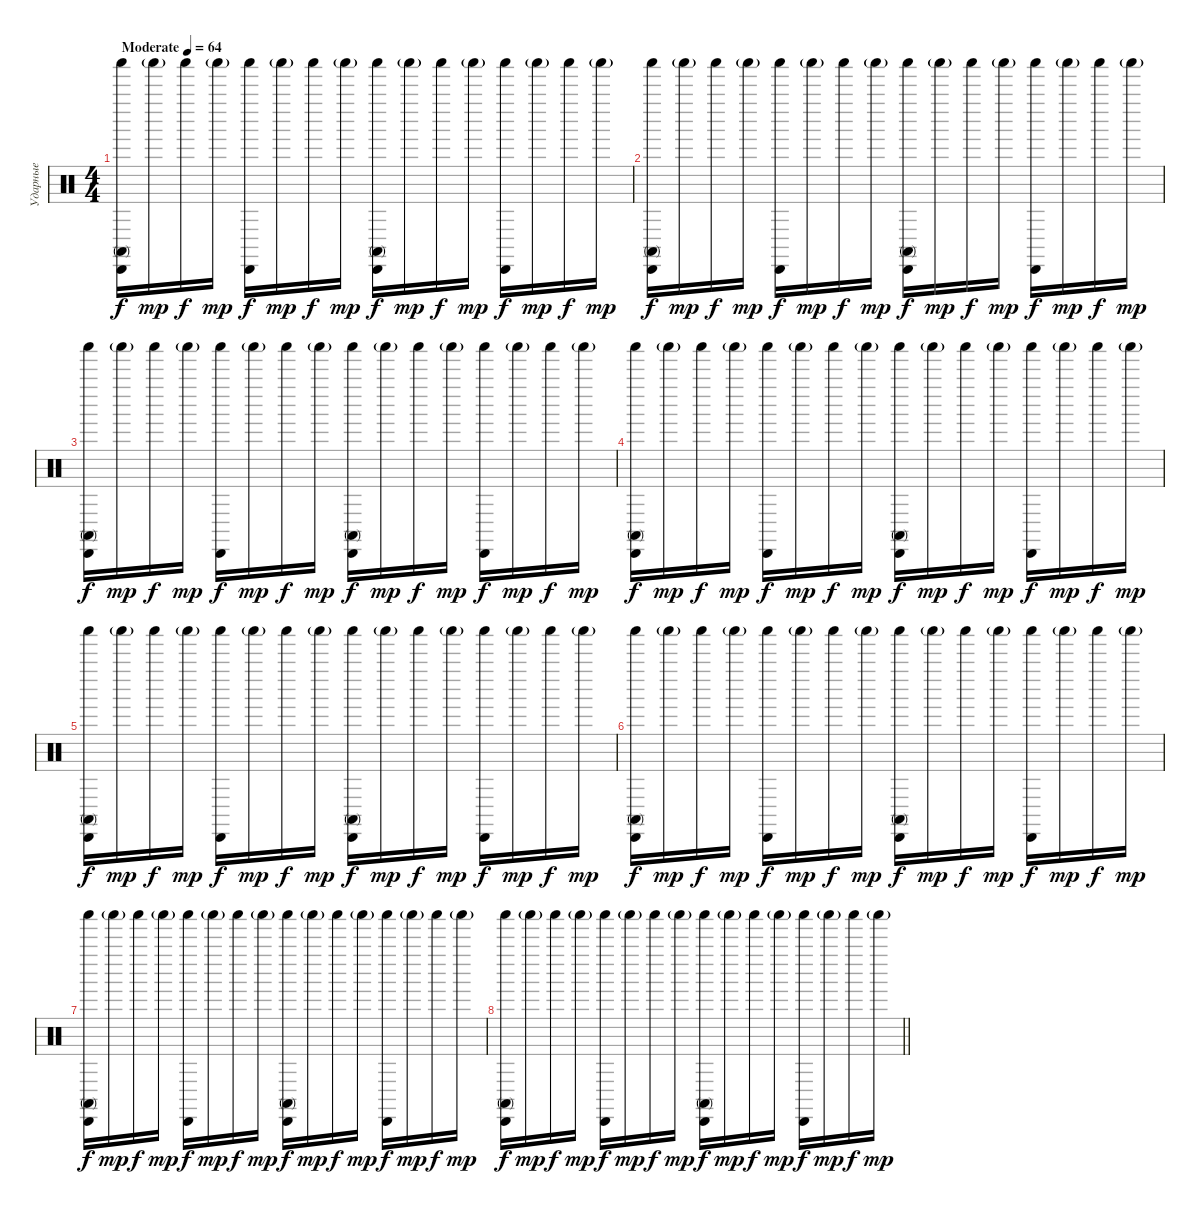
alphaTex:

\track ("Ударные" "Ударные") {instrument percussion}
\staff {score}
\articulation defaults
\ts (4 4)
\tempo (64 "Moderate")
\clef neutral
\ks c
("Conga high (mute)" "Cabasa (hit)" "Shaker (hit)").16{dy f} "Shaker (hit)"{g}.16{dy mp} "Shaker (hit)".16{dy f} "Shaker (hit)"{g}.16{dy mp} ("Cabasa (hit)" "Shaker (hit)").16{dy f} "Shaker (hit)"{g}.16{dy mp} "Shaker (hit)".16{dy f} "Shaker (hit)"{g}.16{dy mp} ("Conga high (mute)" "Cabasa (hit)" "Shaker (hit)").16{dy f} "Shaker (hit)"{g}.16{dy mp} "Shaker (hit)".16{dy f} "Shaker (hit)"{g}.16{dy mp} ("Cabasa (hit)" "Shaker (hit)").16{dy f} "Shaker (hit)"{g}.16{dy mp} "Shaker (hit)".16{dy f} "Shaker (hit)"{g}.16{dy mp} |
("Conga high (mute)" "Cabasa (hit)" "Shaker (hit)").16{dy f} "Shaker (hit)"{g}.16{dy mp} "Shaker (hit)".16{dy f} "Shaker (hit)"{g}.16{dy mp} ("Cabasa (hit)" "Shaker (hit)").16{dy f} "Shaker (hit)"{g}.16{dy mp} "Shaker (hit)".16{dy f} "Shaker (hit)"{g}.16{dy mp} ("Conga high (mute)" "Cabasa (hit)" "Shaker (hit)").16{dy f} "Shaker (hit)"{g}.16{dy mp} "Shaker (hit)".16{dy f} "Shaker (hit)"{g}.16{dy mp} ("Cabasa (hit)" "Shaker (hit)").16{dy f} "Shaker (hit)"{g}.16{dy mp} "Shaker (hit)".16{dy f} "Shaker (hit)"{g}.16{dy mp} |
("Conga high (mute)" "Cabasa (hit)" "Shaker (hit)").16{dy f} "Shaker (hit)"{g}.16{dy mp} "Shaker (hit)".16{dy f} "Shaker (hit)"{g}.16{dy mp} ("Cabasa (hit)" "Shaker (hit)").16{dy f} "Shaker (hit)"{g}.16{dy mp} "Shaker (hit)".16{dy f} "Shaker (hit)"{g}.16{dy mp} ("Conga high (mute)" "Cabasa (hit)" "Shaker (hit)").16{dy f} "Shaker (hit)"{g}.16{dy mp} "Shaker (hit)".16{dy f} "Shaker (hit)"{g}.16{dy mp} ("Cabasa (hit)" "Shaker (hit)").16{dy f} "Shaker (hit)"{g}.16{dy mp} "Shaker (hit)".16{dy f} "Shaker (hit)"{g}.16{dy mp} |
("Conga high (mute)" "Cabasa (hit)" "Shaker (hit)").16{dy f} "Shaker (hit)"{g}.16{dy mp} "Shaker (hit)".16{dy f} "Shaker (hit)"{g}.16{dy mp} ("Cabasa (hit)" "Shaker (hit)").16{dy f} "Shaker (hit)"{g}.16{dy mp} "Shaker (hit)".16{dy f} "Shaker (hit)"{g}.16{dy mp} ("Conga high (mute)" "Cabasa (hit)" "Shaker (hit)").16{dy f} "Shaker (hit)"{g}.16{dy mp} "Shaker (hit)".16{dy f} "Shaker (hit)"{g}.16{dy mp} ("Cabasa (hit)" "Shaker (hit)").16{dy f} "Shaker (hit)"{g}.16{dy mp} "Shaker (hit)".16{dy f} "Shaker (hit)"{g}.16{dy mp} |
("Conga high (mute)" "Cabasa (hit)" "Shaker (hit)").16{dy f} "Shaker (hit)"{g}.16{dy mp} "Shaker (hit)".16{dy f} "Shaker (hit)"{g}.16{dy mp} ("Cabasa (hit)" "Shaker (hit)").16{dy f} "Shaker (hit)"{g}.16{dy mp} "Shaker (hit)".16{dy f} "Shaker (hit)"{g}.16{dy mp} ("Conga high (mute)" "Cabasa (hit)" "Shaker (hit)").16{dy f} "Shaker (hit)"{g}.16{dy mp} "Shaker (hit)".16{dy f} "Shaker (hit)"{g}.16{dy mp} ("Cabasa (hit)" "Shaker (hit)").16{dy f} "Shaker (hit)"{g}.16{dy mp} "Shaker (hit)".16{dy f} "Shaker (hit)"{g}.16{dy mp} |
("Conga high (mute)" "Cabasa (hit)" "Shaker (hit)").16{dy f} "Shaker (hit)"{g}.16{dy mp} "Shaker (hit)".16{dy f} "Shaker (hit)"{g}.16{dy mp} ("Cabasa (hit)" "Shaker (hit)").16{dy f} "Shaker (hit)"{g}.16{dy mp} "Shaker (hit)".16{dy f} "Shaker (hit)"{g}.16{dy mp} ("Conga high (mute)" "Cabasa (hit)" "Shaker (hit)").16{dy f} "Shaker (hit)"{g}.16{dy mp} "Shaker (hit)".16{dy f} "Shaker (hit)"{g}.16{dy mp} ("Cabasa (hit)" "Shaker (hit)").16{dy f} "Shaker (hit)"{g}.16{dy mp} "Shaker (hit)".16{dy f} "Shaker (hit)"{g}.16{dy mp} |
("Conga high (mute)" "Cabasa (hit)" "Shaker (hit)").16{dy f} "Shaker (hit)"{g}.16{dy mp} "Shaker (hit)".16{dy f} "Shaker (hit)"{g}.16{dy mp} ("Cabasa (hit)" "Shaker (hit)").16{dy f} "Shaker (hit)"{g}.16{dy mp} "Shaker (hit)".16{dy f} "Shaker (hit)"{g}.16{dy mp} ("Conga high (mute)" "Cabasa (hit)" "Shaker (hit)").16{dy f} "Shaker (hit)"{g}.16{dy mp} "Shaker (hit)".16{dy f} "Shaker (hit)"{g}.16{dy mp} ("Cabasa (hit)" "Shaker (hit)").16{dy f} "Shaker (hit)"{g}.16{dy mp} "Shaker (hit)".16{dy f} "Shaker (hit)"{g}.16{dy mp} |
\barLineRight lightlight
("Conga high (mute)" "Cabasa (hit)" "Shaker (hit)").16{dy f} "Shaker (hit)"{g}.16{dy mp} "Shaker (hit)".16{dy f} "Shaker (hit)"{g}.16{dy mp} ("Cabasa (hit)" "Shaker (hit)").16{dy f} "Shaker (hit)"{g}.16{dy mp} "Shaker (hit)".16{dy f} "Shaker (hit)"{g}.16{dy mp} ("Conga high (mute)" "Cabasa (hit)" "Shaker (hit)").16{dy f} "Shaker (hit)"{g}.16{dy mp} "Shaker (hit)".16{dy f} "Shaker (hit)"{g}.16{dy mp} ("Cabasa (hit)" "Shaker (hit)").16{dy f} "Shaker (hit)"{g}.16{dy mp} "Shaker (hit)".16{dy f} "Shaker (hit)"{g}.16{dy mp}
